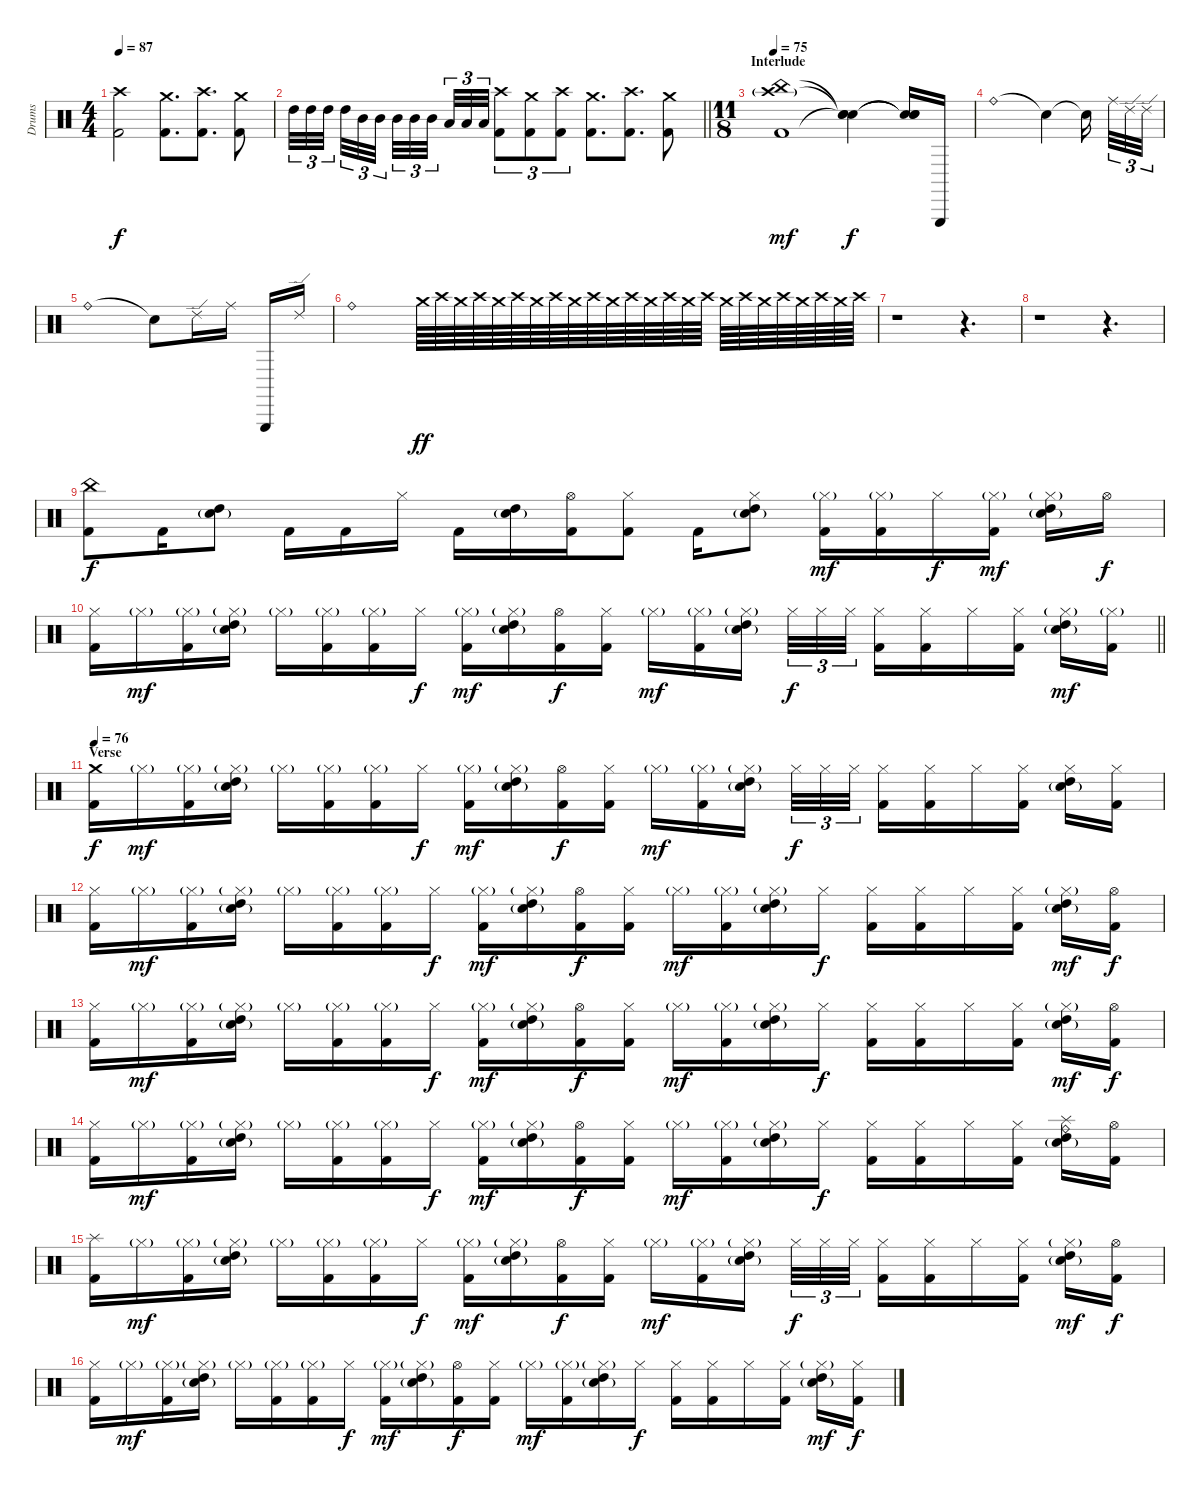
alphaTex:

\track ("Drums" "Drums") {instrument percussion}
\staff {score}
\articulation defaults
\ts (4 4)
\section ("" "")
\tempo 87
\clef neutral
\ks c
("Crash high (hit)" "Kick (hit) 2").2{dy f} ("Crash medium (hit)" "Kick (hit) 2").8{d} ("Crash high (hit)" "Kick (hit) 2").8{d} ("Crash medium (hit)" "Kick (hit) 2").8 |
\barLineRight lightlight "High Tom (hit)".32{tu (3 2)} "High Tom (hit)".32{tu (3 2)} "High Tom (hit)".32{tu (3 2) beam splitsecondary} "High Tom (hit)".32{tu (3 2)} "Mid Tom (hit)".32{tu (3 2)} "Mid Tom (hit)".32{tu (3 2) beam splitsecondary} "Mid Tom (hit)".32{tu (3 2)} "Mid Tom (hit)".32{tu (3 2)} "Mid Tom (hit)".32{tu (3 2) beam splitsecondary} "Low Tom (hit)".32{tu (3 2)} "Low Tom (hit)".32{tu (3 2)} "Low Tom (hit)".32{tu (3 2)}
("Crash high (hit)" "Kick (hit) 2").8{tu (3 2)} ("Crash medium (hit)" "Kick (hit) 2").8{tu (3 2)} ("Crash high (hit)" "Kick (hit) 2").8{tu (3 2)} ("Crash medium (hit)" "Kick (hit) 2").8{d} ("Crash high (hit)" "Kick (hit) 2").8{d} ("Crash medium (hit)" "Kick (hit) 2").8 |
\ts (11 8)
\section ("" "Interlude")
\tempo 75
("Crash high (hit)"{g} "China (hit)" "Kick (hit) 2").1{dy mf} ("Snare (hit)"{t} "Snare (hit)"{t} "Snare (hit)"{t}).4{dy f} ("Snare (hit)"{t} "Snare (hit)"{t} "Snare (hit)"{t}).16 "Triangle (hit)".16 |
"Ride (bell)".1 "Snare (hit)"{t}.4 "Snare (hit)"{t}.16{beam splitsecondary} "Ride (middle)".32{tu (3 2)} "Ride (edge) 2".32{tu (3 2)} "Ride (edge) 2".32{tu (3 2)} |
"Ride (bell)".1 "Snare (hit)"{t}.8 "Ride (edge) 2".16 "Ride (middle)".16 "Triangle (hit)".16 "Ride (edge) 2".16 |
"Ride (bell)".1 "Crash medium (hit)".64{dy ff volume 1} "Crash high (hit)".64{volume 14} "Crash medium (hit)".64 "Crash high (hit)".64 "Crash medium (hit)".64 "Crash high (hit)".64 "Crash medium (hit)".64 "Crash high (hit)".64 "Crash medium (hit)".64 "Crash high (hit)".64 "Crash medium (hit)".64 "Crash high (hit)".64 "Crash medium (hit)".64 "Crash high (hit)".64 "Crash medium (hit)".64 "Crash high (hit)".64 "Crash medium (hit)".64 "Crash high (hit)".64 "Crash medium (hit)".64 "Crash high (hit)".64 "Crash medium (hit)".64 "Crash high (hit)".64 "Crash medium (hit)".64 "Crash high (hit)".64 |
r.1 r.4{d} |
r.1 r.4{d} |
("China (hit)" "Kick (hit) 2").8{dy f} "Kick (hit) 2".16 ("High Tom (hit)" "Snare (hit) 2"{g}).8 "Kick (hit) 2".16 "Kick (hit) 2".16 "Hi-Hat (closed)".16 "Kick (hit) 2".16 ("High Tom (hit)" "Snare (hit) 2"{g}).16 ("Hi-Hat (open)" "Kick (hit) 2").16 ("Hi-Hat (closed)" "Kick (hit) 2").8 "Kick (hit) 2".16 ("Hi-Hat (closed)" "High Tom (hit)" "Snare (hit) 2"{g}).8 ("Hi-Hat (closed)"{g} "Kick (hit) 2").16{dy mf} ("Hi-Hat (closed)"{g} "Kick (hit) 2").16 "Hi-Hat (closed)".16{dy f} ("Hi-Hat (closed)"{g} "Kick (hit) 2").16{dy mf} ("Hi-Hat (closed)"{g} "High Tom (hit)" "Snare (hit) 2"{g}).16 "Hi-Hat (open)".16{dy f} |
\barLineRight lightlight
("Hi-Hat (closed)" "Kick (hit) 2").16 "Hi-Hat (closed)"{g}.16{dy mf} ("Hi-Hat (closed)"{g} "Kick (hit) 2").16 ("Hi-Hat (closed)"{g} "High Tom (hit)" "Snare (hit) 2"{g}).16 "Hi-Hat (closed)"{g}.16 ("Hi-Hat (closed)"{g} "Kick (hit) 2").16 ("Hi-Hat (closed)"{g} "Kick (hit) 2").16 "Hi-Hat (closed)".16{dy f} ("Hi-Hat (closed)"{g} "Kick (hit) 2").16{dy mf} ("Hi-Hat (closed)"{g} "High Tom (hit)" "Snare (hit) 2"{g}).16 ("Hi-Hat (open)" "Kick (hit) 2").16{dy f} ("Hi-Hat (closed)" "Kick (hit) 2").16 "Hi-Hat (closed)"{g}.16{dy mf} ("Hi-Hat (closed)"{g} "Kick (hit) 2").16 ("Hi-Hat (closed)"{g} "High Tom (hit)" "Snare (hit) 2"{g}).16{beam splitsecondary} "Hi-Hat (closed)".32{tu (3 2) dy f} "Hi-Hat (closed)".32{tu (3 2)} "Hi-Hat (closed)".32{tu (3 2)} ("Hi-Hat (closed)" "Kick (hit) 2").16 ("Hi-Hat (closed)" "Kick (hit) 2").16 "Hi-Hat (closed)".16 ("Hi-Hat (closed)" "Kick (hit) 2").16 ("Hi-Hat (closed)"{g} "High Tom (hit)" "Snare (hit) 2"{g}).16{dy mf} ("Hi-Hat (closed)"{g} "Kick (hit) 2").16 |
\section ("" "Verse")
\tempo 76
("Crash medium (hit)" "Kick (hit) 2").16{dy f} "Hi-Hat (closed)"{g}.16{dy mf} ("Hi-Hat (closed)"{g} "Kick (hit) 2").16 ("Hi-Hat (closed)"{g} "High Tom (hit)" "Snare (hit) 2"{g}).16 "Hi-Hat (closed)"{g}.16 ("Hi-Hat (closed)"{g} "Kick (hit) 2").16 ("Hi-Hat (closed)"{g} "Kick (hit) 2").16 "Hi-Hat (closed)".16{dy f} ("Hi-Hat (closed)"{g} "Kick (hit) 2").16{dy mf} ("Hi-Hat (closed)"{g} "High Tom (hit)" "Snare (hit) 2"{g}).16 ("Hi-Hat (open)" "Kick (hit) 2").16{dy f} ("Hi-Hat (closed)" "Kick (hit) 2").16 "Hi-Hat (closed)"{g}.16{dy mf} ("Hi-Hat (closed)"{g} "Kick (hit) 2").16 ("Hi-Hat (closed)"{g} "High Tom (hit)" "Snare (hit) 2"{g}).16{beam splitsecondary} "Hi-Hat (closed)".32{tu (3 2) dy f} "Hi-Hat (closed)".32{tu (3 2)} "Hi-Hat (closed)".32{tu (3 2)} ("Hi-Hat (closed)" "Kick (hit) 2").16 ("Hi-Hat (closed)" "Kick (hit) 2").16 "Hi-Hat (closed)".16 ("Hi-Hat (closed)" "Kick (hit) 2").16 ("Hi-Hat (closed)" "High Tom (hit)" "Snare (hit) 2"{g}).16 ("Hi-Hat (closed)" "Kick (hit) 2").16 |
("Hi-Hat (closed)" "Kick (hit) 2").16 "Hi-Hat (closed)"{g}.16{dy mf} ("Hi-Hat (closed)"{g} "Kick (hit) 2").16 ("Hi-Hat (closed)"{g} "High Tom (hit)" "Snare (hit) 2"{g}).16 "Hi-Hat (closed)"{g}.16 ("Hi-Hat (closed)"{g} "Kick (hit) 2").16 ("Hi-Hat (closed)"{g} "Kick (hit) 2").16 "Hi-Hat (closed)".16{dy f} ("Hi-Hat (closed)"{g} "Kick (hit) 2").16{dy mf} ("Hi-Hat (closed)"{g} "High Tom (hit)" "Snare (hit) 2"{g}).16 ("Hi-Hat (open)" "Kick (hit) 2").16{dy f} ("Hi-Hat (closed)" "Kick (hit) 2").16 "Hi-Hat (closed)"{g}.16{dy mf} ("Hi-Hat (closed)"{g} "Kick (hit) 2").16 ("Hi-Hat (closed)"{g} "High Tom (hit)" "Snare (hit) 2"{g}).16 "Hi-Hat (closed)".16{dy f} ("Hi-Hat (closed)" "Kick (hit) 2").16 ("Hi-Hat (closed)" "Kick (hit) 2").16 "Hi-Hat (closed)".16 ("Hi-Hat (closed)" "Kick (hit) 2").16 ("Hi-Hat (closed)"{g} "High Tom (hit)" "Snare (hit) 2"{g}).16{dy mf} ("Hi-Hat (open)" "Kick (hit) 2").16{dy f} |
("Hi-Hat (closed)" "Kick (hit) 2").16 "Hi-Hat (closed)"{g}.16{dy mf} ("Hi-Hat (closed)"{g} "Kick (hit) 2").16 ("Hi-Hat (closed)"{g} "High Tom (hit)" "Snare (hit) 2"{g}).16 "Hi-Hat (closed)"{g}.16 ("Hi-Hat (closed)"{g} "Kick (hit) 2").16 ("Hi-Hat (closed)"{g} "Kick (hit) 2").16 "Hi-Hat (closed)".16{dy f} ("Hi-Hat (closed)"{g} "Kick (hit) 2").16{dy mf} ("Hi-Hat (closed)"{g} "High Tom (hit)" "Snare (hit) 2"{g}).16 ("Hi-Hat (open)" "Kick (hit) 2").16{dy f} ("Hi-Hat (closed)" "Kick (hit) 2").16 "Hi-Hat (closed)"{g}.16{dy mf} ("Hi-Hat (closed)"{g} "Kick (hit) 2").16 ("Hi-Hat (closed)"{g} "High Tom (hit)" "Snare (hit) 2"{g}).16 "Hi-Hat (closed)".16{dy f} ("Hi-Hat (closed)" "Kick (hit) 2").16 ("Hi-Hat (closed)" "Kick (hit) 2").16 "Hi-Hat (closed)".16 ("Hi-Hat (closed)" "Kick (hit) 2").16 ("Hi-Hat (closed)"{g} "High Tom (hit)" "Snare (hit) 2"{g}).16{dy mf} ("Hi-Hat (open)" "Kick (hit) 2").16{dy f} |
("Hi-Hat (closed)" "Kick (hit) 2").16 "Hi-Hat (closed)"{g}.16{dy mf} ("Hi-Hat (closed)"{g} "Kick (hit) 2").16 ("Hi-Hat (closed)"{g} "High Tom (hit)" "Snare (hit) 2"{g}).16 "Hi-Hat (closed)"{g}.16 ("Hi-Hat (closed)"{g} "Kick (hit) 2").16 ("Hi-Hat (closed)"{g} "Kick (hit) 2").16 "Hi-Hat (closed)".16{dy f} ("Hi-Hat (closed)"{g} "Kick (hit) 2").16{dy mf} ("Hi-Hat (closed)"{g} "High Tom (hit)" "Snare (hit) 2"{g}).16 ("Hi-Hat (open)" "Kick (hit) 2").16{dy f} ("Hi-Hat (closed)" "Kick (hit) 2").16 "Hi-Hat (closed)"{g}.16{dy mf} ("Hi-Hat (closed)"{g} "Kick (hit) 2").16 ("Hi-Hat (closed)"{g} "High Tom (hit)" "Snare (hit) 2"{g}).16 "Hi-Hat (closed)".16{dy f} ("Hi-Hat (closed)" "Kick (hit) 2").16 ("Hi-Hat (closed)" "Kick (hit) 2").16 "Hi-Hat (closed)".16 ("Hi-Hat (closed)" "Kick (hit) 2").16 ("Ride (bell)" "Splash (hit)" "High Tom (hit)" "Snare (hit) 2"{g}).16 ("Hi-Hat (open)" "Kick (hit) 2").16 |
("Splash (hit)" "Kick (hit) 2").16 "Hi-Hat (closed)"{g}.16{dy mf} ("Hi-Hat (closed)"{g} "Kick (hit) 2").16 ("Hi-Hat (closed)"{g} "High Tom (hit)" "Snare (hit) 2"{g}).16 "Hi-Hat (closed)"{g}.16 ("Hi-Hat (closed)"{g} "Kick (hit) 2").16 ("Hi-Hat (closed)"{g} "Kick (hit) 2").16 "Hi-Hat (closed)".16{dy f} ("Hi-Hat (closed)"{g} "Kick (hit) 2").16{dy mf} ("Hi-Hat (closed)"{g} "High Tom (hit)" "Snare (hit) 2"{g}).16 ("Hi-Hat (open)" "Kick (hit) 2").16{dy f} ("Hi-Hat (closed)" "Kick (hit) 2").16 "Hi-Hat (closed)"{g}.16{dy mf} ("Hi-Hat (closed)"{g} "Kick (hit) 2").16 ("Hi-Hat (closed)"{g} "High Tom (hit)" "Snare (hit) 2"{g}).16{beam splitsecondary} "Hi-Hat (closed)".32{tu (3 2) dy f} "Hi-Hat (closed)".32{tu (3 2)} "Hi-Hat (closed)".32{tu (3 2)} ("Hi-Hat (closed)" "Kick (hit) 2").16 ("Hi-Hat (closed)" "Kick (hit) 2").16 "Hi-Hat (closed)".16 ("Hi-Hat (closed)" "Kick (hit) 2").16 ("Hi-Hat (closed)"{g} "High Tom (hit)" "Snare (hit) 2"{g}).16{dy mf} ("Hi-Hat (open)" "Kick (hit) 2").16{dy f} |
("Hi-Hat (closed)" "Kick (hit) 2").16 "Hi-Hat (closed)"{g}.16{dy mf} ("Hi-Hat (closed)"{g} "Kick (hit) 2").16 ("Hi-Hat (closed)"{g} "High Tom (hit)" "Snare (hit) 2"{g}).16 "Hi-Hat (closed)"{g}.16 ("Hi-Hat (closed)"{g} "Kick (hit) 2").16 ("Hi-Hat (closed)"{g} "Kick (hit) 2").16 "Hi-Hat (closed)".16{dy f} ("Hi-Hat (closed)"{g} "Kick (hit) 2").16{dy mf} ("Hi-Hat (closed)"{g} "High Tom (hit)" "Snare (hit) 2"{g}).16 ("Hi-Hat (open)" "Kick (hit) 2").16{dy f} ("Hi-Hat (closed)" "Kick (hit) 2").16 "Hi-Hat (closed)"{g}.16{dy mf} ("Hi-Hat (closed)"{g} "Kick (hit) 2").16 ("Hi-Hat (closed)"{g} "High Tom (hit)" "Snare (hit) 2"{g}).16 "Hi-Hat (closed)".16{dy f} ("Hi-Hat (closed)" "Kick (hit) 2").16 ("Hi-Hat (closed)" "Kick (hit) 2").16 "Hi-Hat (closed)".16 ("Hi-Hat (closed)" "Kick (hit) 2").16 ("Hi-Hat (closed)"{g} "High Tom (hit)" "Snare (hit) 2"{g}).16{dy mf} ("Hi-Hat (closed)" "Kick (hit) 2").16{dy f}
